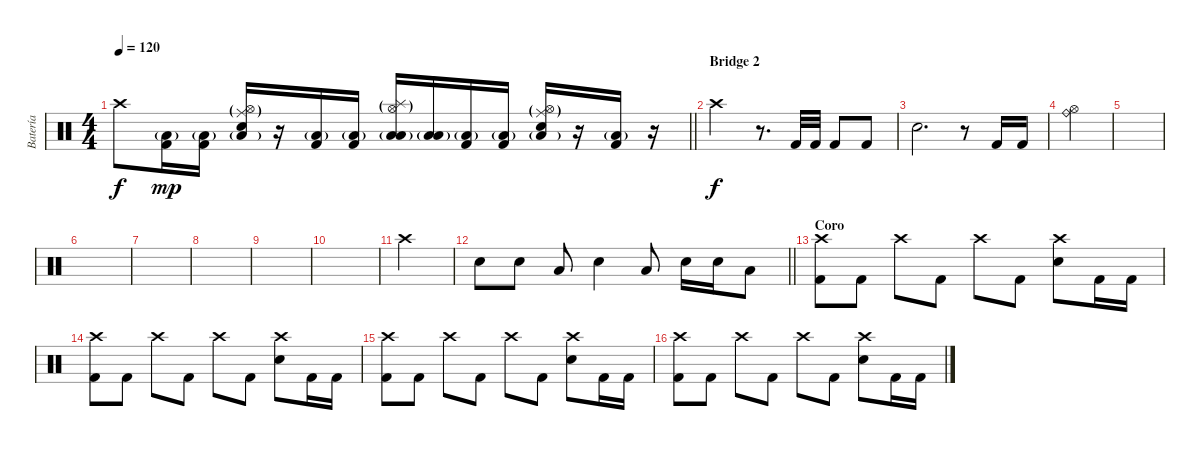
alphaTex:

\track ("Batería" "Batería") {instrument percussion}
\staff {score}
\articulation defaults
\ts (4 4)
\tempo 120
\clef neutral
\barLineRight lightlight
\ks c "Crash high (hit)".8{dy f}
("Low Floor Tom (hit)"{g} "Kick (hit) 2").16{dy mp} ("Low Floor Tom (hit)"{g} "Kick (hit) 2").16 ("Ride (middle)"{g} "Hi-Hat (open)"{g} "Electric Snare (hit)" "Low Floor Tom (hit)"{g}).16 r.16 ("Low Floor Tom (hit)"{g} "Kick (hit) 2").16 ("Low Floor Tom (hit)"{g} "Kick (hit) 2").16 ("Hi-Hat (open)"{g} "Splash (hit)"{g} "Low Tom (hit)" "Low Floor Tom (hit)"{g}).16 ("Low Tom (hit)" "Low Floor Tom (hit)"{g}).16 ("Low Floor Tom (hit)"{g} "Kick (hit) 2").16 ("Low Floor Tom (hit)"{g} "Kick (hit) 2").16 ("Ride (middle)"{g} "Hi-Hat (open)"{g} "Electric Snare (hit)" "Low Floor Tom (hit)"{g}).16 r.16 ("Low Floor Tom (hit)"{g} "Kick (hit) 2").16 r.16 |
\section ("" "Bridge 2")
"Crash high (hit)".2{dy f} r.8{d} "Kick (hit) 2".32 "Kick (hit) 2".32 "Kick (hit) 2".8 "Kick (hit) 2".8 |
"Electric Snare (hit)".2{d} r.8 "Kick (hit) 2".16 "Kick (hit) 2".16 |
("Ride (bell)" "Hi-Hat (open)").4 |
|
|
|
|
|
|
"Crash high (hit)".4 |
\barLineRight lightlight "Snare (hit) 2".8 "Snare (hit) 2".8 "Low Tom (hit)".8 "Snare (hit) 2".4 "Low Tom (hit)".8 "Snare (hit) 2".16 "Snare (hit) 2".16 "Low Tom (hit)".8
|
\section ("" "Coro ")
("Crash high (hit)" "Kick (hit) 2").8 "Kick (hit) 2".8 "Crash high (hit)".8 "Kick (hit) 2".8 "Crash high (hit)".8 "Kick (hit) 2".8 ("Crash high (hit)" "Electric Snare (hit)").8 "Kick (hit) 2".16 "Kick (hit) 2".16 |
("Crash high (hit)" "Kick (hit) 2").8 "Kick (hit) 2".8 "Crash high (hit)".8 "Kick (hit) 2".8 "Crash high (hit)".8 "Kick (hit) 2".8 ("Crash high (hit)" "Electric Snare (hit)").8 "Kick (hit) 2".16 "Kick (hit) 2".16 |
("Crash high (hit)" "Kick (hit) 2").8 "Kick (hit) 2".8 "Crash high (hit)".8 "Kick (hit) 2".8 "Crash high (hit)".8 "Kick (hit) 2".8 ("Crash high (hit)" "Electric Snare (hit)").8 "Kick (hit) 2".16 "Kick (hit) 2".16 |
("Crash high (hit)" "Kick (hit) 2").8 "Kick (hit) 2".8 "Crash high (hit)".8 "Kick (hit) 2".8 "Crash high (hit)".8 "Kick (hit) 2".8 ("Crash high (hit)" "Electric Snare (hit)").8 "Kick (hit) 2".16 "Kick (hit) 2".16
